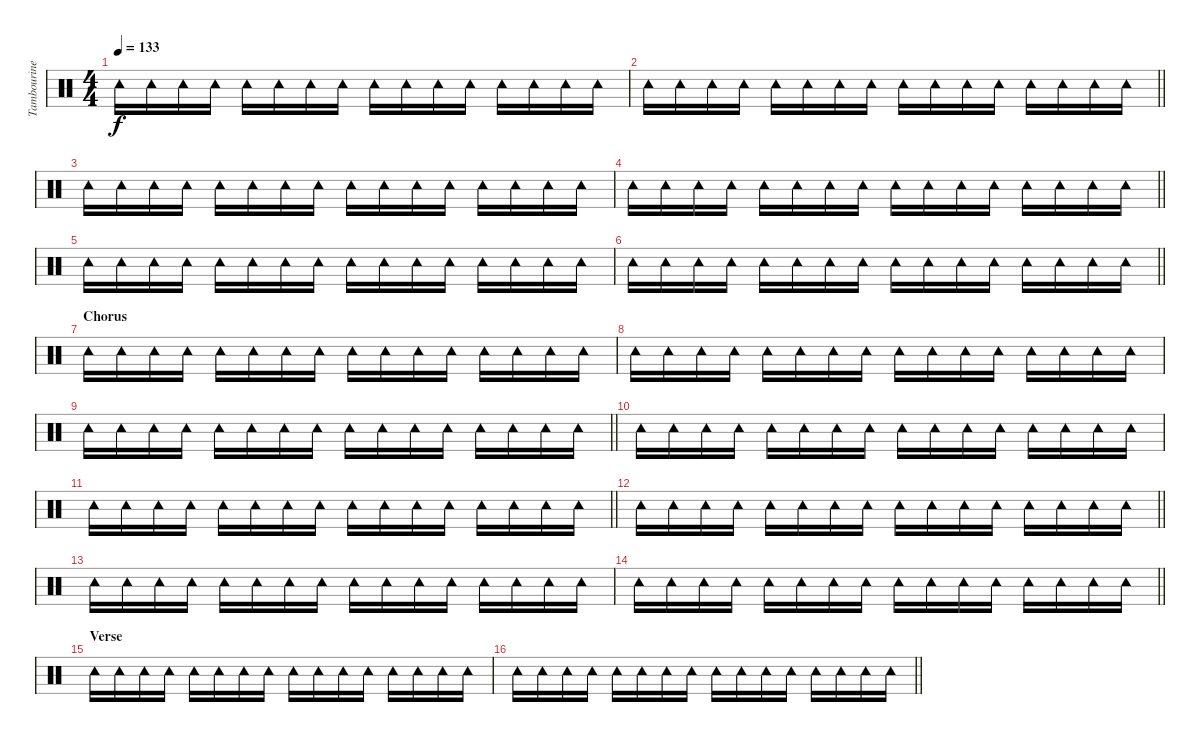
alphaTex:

\track ("Tambourine" "Tambourine") {instrument percussion}
\staff {score}
\articulation defaults
\ts (4 4)
\tempo 133
\clef neutral
\ks c "Tambourine (hit)".16{dy f} "Tambourine (hit)".16 "Tambourine (hit)".16 "Tambourine (hit)".16 "Tambourine (hit)".16 "Tambourine (hit)".16 "Tambourine (hit)".16 "Tambourine (hit)".16 "Tambourine (hit)".16 "Tambourine (hit)".16 "Tambourine (hit)".16 "Tambourine (hit)".16 "Tambourine (hit)".16 "Tambourine (hit)".16 "Tambourine (hit)".16 "Tambourine (hit)".16
|
\barLineRight lightlight "Tambourine (hit)".16 "Tambourine (hit)".16 "Tambourine (hit)".16 "Tambourine (hit)".16 "Tambourine (hit)".16 "Tambourine (hit)".16 "Tambourine (hit)".16 "Tambourine (hit)".16 "Tambourine (hit)".16 "Tambourine (hit)".16 "Tambourine (hit)".16 "Tambourine (hit)".16 "Tambourine (hit)".16 "Tambourine (hit)".16 "Tambourine (hit)".16 "Tambourine (hit)".16
|
"Tambourine (hit)".16 "Tambourine (hit)".16 "Tambourine (hit)".16 "Tambourine (hit)".16 "Tambourine (hit)".16 "Tambourine (hit)".16 "Tambourine (hit)".16 "Tambourine (hit)".16 "Tambourine (hit)".16 "Tambourine (hit)".16 "Tambourine (hit)".16 "Tambourine (hit)".16 "Tambourine (hit)".16 "Tambourine (hit)".16 "Tambourine (hit)".16 "Tambourine (hit)".16 |
\barLineRight lightlight "Tambourine (hit)".16 "Tambourine (hit)".16 "Tambourine (hit)".16 "Tambourine (hit)".16 "Tambourine (hit)".16 "Tambourine (hit)".16 "Tambourine (hit)".16 "Tambourine (hit)".16 "Tambourine (hit)".16 "Tambourine (hit)".16 "Tambourine (hit)".16 "Tambourine (hit)".16 "Tambourine (hit)".16 "Tambourine (hit)".16 "Tambourine (hit)".16 "Tambourine (hit)".16
|
"Tambourine (hit)".16 "Tambourine (hit)".16 "Tambourine (hit)".16 "Tambourine (hit)".16 "Tambourine (hit)".16 "Tambourine (hit)".16 "Tambourine (hit)".16 "Tambourine (hit)".16 "Tambourine (hit)".16 "Tambourine (hit)".16 "Tambourine (hit)".16 "Tambourine (hit)".16 "Tambourine (hit)".16 "Tambourine (hit)".16 "Tambourine (hit)".16 "Tambourine (hit)".16 |
\barLineRight lightlight "Tambourine (hit)".16 "Tambourine (hit)".16 "Tambourine (hit)".16 "Tambourine (hit)".16 "Tambourine (hit)".16 "Tambourine (hit)".16 "Tambourine (hit)".16 "Tambourine (hit)".16 "Tambourine (hit)".16 "Tambourine (hit)".16 "Tambourine (hit)".16 "Tambourine (hit)".16 "Tambourine (hit)".16 "Tambourine (hit)".16 "Tambourine (hit)".16 "Tambourine (hit)".16
|
\section ("" "Chorus")
"Tambourine (hit)".16 "Tambourine (hit)".16 "Tambourine (hit)".16 "Tambourine (hit)".16 "Tambourine (hit)".16 "Tambourine (hit)".16 "Tambourine (hit)".16 "Tambourine (hit)".16 "Tambourine (hit)".16 "Tambourine (hit)".16 "Tambourine (hit)".16 "Tambourine (hit)".16 "Tambourine (hit)".16 "Tambourine (hit)".16 "Tambourine (hit)".16 "Tambourine (hit)".16 |
"Tambourine (hit)".16 "Tambourine (hit)".16 "Tambourine (hit)".16 "Tambourine (hit)".16 "Tambourine (hit)".16 "Tambourine (hit)".16 "Tambourine (hit)".16 "Tambourine (hit)".16 "Tambourine (hit)".16 "Tambourine (hit)".16 "Tambourine (hit)".16 "Tambourine (hit)".16 "Tambourine (hit)".16 "Tambourine (hit)".16 "Tambourine (hit)".16 "Tambourine (hit)".16 |
\barLineRight lightlight "Tambourine (hit)".16 "Tambourine (hit)".16 "Tambourine (hit)".16 "Tambourine (hit)".16 "Tambourine (hit)".16 "Tambourine (hit)".16 "Tambourine (hit)".16 "Tambourine (hit)".16 "Tambourine (hit)".16 "Tambourine (hit)".16 "Tambourine (hit)".16 "Tambourine (hit)".16 "Tambourine (hit)".16 "Tambourine (hit)".16 "Tambourine (hit)".16 "Tambourine (hit)".16
|
"Tambourine (hit)".16 "Tambourine (hit)".16 "Tambourine (hit)".16 "Tambourine (hit)".16 "Tambourine (hit)".16 "Tambourine (hit)".16 "Tambourine (hit)".16 "Tambourine (hit)".16 "Tambourine (hit)".16 "Tambourine (hit)".16 "Tambourine (hit)".16 "Tambourine (hit)".16 "Tambourine (hit)".16 "Tambourine (hit)".16 "Tambourine (hit)".16 "Tambourine (hit)".16 |
\barLineRight lightlight "Tambourine (hit)".16 "Tambourine (hit)".16 "Tambourine (hit)".16 "Tambourine (hit)".16 "Tambourine (hit)".16 "Tambourine (hit)".16 "Tambourine (hit)".16 "Tambourine (hit)".16 "Tambourine (hit)".16 "Tambourine (hit)".16 "Tambourine (hit)".16 "Tambourine (hit)".16 "Tambourine (hit)".16 "Tambourine (hit)".16 "Tambourine (hit)".16 "Tambourine (hit)".16
|
\barLineRight lightlight "Tambourine (hit)".16 "Tambourine (hit)".16 "Tambourine (hit)".16 "Tambourine (hit)".16 "Tambourine (hit)".16 "Tambourine (hit)".16 "Tambourine (hit)".16 "Tambourine (hit)".16 "Tambourine (hit)".16 "Tambourine (hit)".16 "Tambourine (hit)".16 "Tambourine (hit)".16 "Tambourine (hit)".16 "Tambourine (hit)".16 "Tambourine (hit)".16 "Tambourine (hit)".16
|
"Tambourine (hit)".16 "Tambourine (hit)".16 "Tambourine (hit)".16 "Tambourine (hit)".16 "Tambourine (hit)".16 "Tambourine (hit)".16 "Tambourine (hit)".16 "Tambourine (hit)".16 "Tambourine (hit)".16 "Tambourine (hit)".16 "Tambourine (hit)".16 "Tambourine (hit)".16 "Tambourine (hit)".16 "Tambourine (hit)".16 "Tambourine (hit)".16 "Tambourine (hit)".16 |
\barLineRight lightlight "Tambourine (hit)".16 "Tambourine (hit)".16 "Tambourine (hit)".16 "Tambourine (hit)".16 "Tambourine (hit)".16 "Tambourine (hit)".16 "Tambourine (hit)".16 "Tambourine (hit)".16 "Tambourine (hit)".16 "Tambourine (hit)".16 "Tambourine (hit)".16 "Tambourine (hit)".16 "Tambourine (hit)".16 "Tambourine (hit)".16 "Tambourine (hit)".16 "Tambourine (hit)".16
|
\section ("" "Verse")
"Tambourine (hit)".16 "Tambourine (hit)".16 "Tambourine (hit)".16 "Tambourine (hit)".16 "Tambourine (hit)".16 "Tambourine (hit)".16 "Tambourine (hit)".16 "Tambourine (hit)".16 "Tambourine (hit)".16 "Tambourine (hit)".16 "Tambourine (hit)".16 "Tambourine (hit)".16 "Tambourine (hit)".16 "Tambourine (hit)".16 "Tambourine (hit)".16 "Tambourine (hit)".16 |
\barLineRight lightlight "Tambourine (hit)".16 "Tambourine (hit)".16 "Tambourine (hit)".16 "Tambourine (hit)".16 "Tambourine (hit)".16 "Tambourine (hit)".16 "Tambourine (hit)".16 "Tambourine (hit)".16 "Tambourine (hit)".16 "Tambourine (hit)".16 "Tambourine (hit)".16 "Tambourine (hit)".16 "Tambourine (hit)".16 "Tambourine (hit)".16 "Tambourine (hit)".16 "Tambourine (hit)".16
